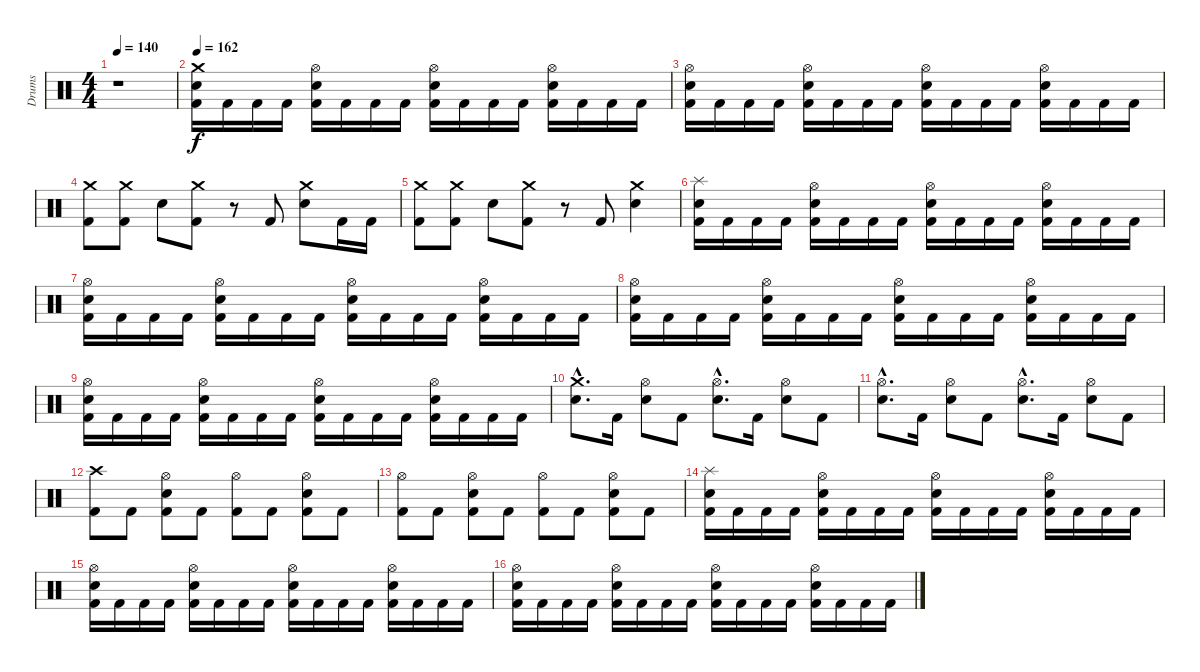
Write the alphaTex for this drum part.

\track ("Drums" "Drums") {instrument percussion}
\staff {score}
\articulation defaults
\ts (4 4)
\tempo 140
\clef neutral
\ks c
r.1{dy f} |
\section ("" "")
\tempo 162
("Kick (hit) 2" "Electric Snare (hit)" "Crash medium (hit)").16 "Kick (hit) 2".16 "Kick (hit) 2".16 "Kick (hit) 2".16 ("Kick (hit) 2" "Electric Snare (hit)" "Hi-Hat (open)").16 "Kick (hit) 2".16 "Kick (hit) 2".16 "Kick (hit) 2".16 ("Kick (hit) 2" "Electric Snare (hit)" "Hi-Hat (open)").16 "Kick (hit) 2".16 "Kick (hit) 2".16 "Kick (hit) 2".16 ("Kick (hit) 2" "Electric Snare (hit)" "Hi-Hat (open)").16 "Kick (hit) 2".16 "Kick (hit) 2".16 "Kick (hit) 2".16 |
("Kick (hit) 2" "Electric Snare (hit)" "Hi-Hat (open)").16 "Kick (hit) 2".16 "Kick (hit) 2".16 "Kick (hit) 2".16 ("Kick (hit) 2" "Electric Snare (hit)" "Hi-Hat (open)").16 "Kick (hit) 2".16 "Kick (hit) 2".16 "Kick (hit) 2".16 ("Kick (hit) 2" "Electric Snare (hit)" "Hi-Hat (open)").16 "Kick (hit) 2".16 "Kick (hit) 2".16 "Kick (hit) 2".16 ("Kick (hit) 2" "Electric Snare (hit)" "Hi-Hat (open)").16 "Kick (hit) 2".16 "Kick (hit) 2".16 "Kick (hit) 2".16 |
("Kick (hit) 2" "Crash medium (hit)").8 ("Kick (hit) 2" "Crash medium (hit)").8 "Electric Snare (hit)".8 ("Kick (hit) 2" "Crash medium (hit)").8 r.8 "Kick (hit) 2".8 ("Electric Snare (hit)" "Crash medium (hit)").8 "Kick (hit) 2".16 "Kick (hit) 2".16 |
("Kick (hit) 2" "Crash medium (hit)").8 ("Kick (hit) 2" "Crash medium (hit)").8 "Electric Snare (hit)".8 ("Kick (hit) 2" "Crash medium (hit)").8 r.8 "Kick (hit) 2".8 ("Electric Snare (hit)" "Crash medium (hit)").4 |
("Kick (hit) 2" "Electric Snare (hit)" "Splash (hit)").16 "Kick (hit) 2".16 "Kick (hit) 2".16 "Kick (hit) 2".16 ("Kick (hit) 2" "Electric Snare (hit)" "Hi-Hat (open)").16 "Kick (hit) 2".16 "Kick (hit) 2".16 "Kick (hit) 2".16 ("Kick (hit) 2" "Electric Snare (hit)" "Hi-Hat (open)").16 "Kick (hit) 2".16 "Kick (hit) 2".16 "Kick (hit) 2".16 ("Kick (hit) 2" "Electric Snare (hit)" "Hi-Hat (open)").16 "Kick (hit) 2".16 "Kick (hit) 2".16 "Kick (hit) 2".16 |
("Kick (hit) 2" "Electric Snare (hit)" "Hi-Hat (open)").16 "Kick (hit) 2".16 "Kick (hit) 2".16 "Kick (hit) 2".16 ("Kick (hit) 2" "Electric Snare (hit)" "Hi-Hat (open)").16 "Kick (hit) 2".16 "Kick (hit) 2".16 "Kick (hit) 2".16 ("Kick (hit) 2" "Electric Snare (hit)" "Hi-Hat (open)").16 "Kick (hit) 2".16 "Kick (hit) 2".16 "Kick (hit) 2".16 ("Kick (hit) 2" "Electric Snare (hit)" "Hi-Hat (open)").16 "Kick (hit) 2".16 "Kick (hit) 2".16 "Kick (hit) 2".16 |
("Kick (hit) 2" "Electric Snare (hit)" "Hi-Hat (open)").16 "Kick (hit) 2".16 "Kick (hit) 2".16 "Kick (hit) 2".16 ("Kick (hit) 2" "Electric Snare (hit)" "Hi-Hat (open)").16 "Kick (hit) 2".16 "Kick (hit) 2".16 "Kick (hit) 2".16 ("Kick (hit) 2" "Electric Snare (hit)" "Hi-Hat (open)").16 "Kick (hit) 2".16 "Kick (hit) 2".16 "Kick (hit) 2".16 ("Kick (hit) 2" "Electric Snare (hit)" "Hi-Hat (open)").16 "Kick (hit) 2".16 "Kick (hit) 2".16 "Kick (hit) 2".16 |
("Kick (hit) 2" "Electric Snare (hit)" "Hi-Hat (open)").16 "Kick (hit) 2".16 "Kick (hit) 2".16 "Kick (hit) 2".16 ("Kick (hit) 2" "Electric Snare (hit)" "Hi-Hat (open)").16 "Kick (hit) 2".16 "Kick (hit) 2".16 "Kick (hit) 2".16 ("Kick (hit) 2" "Electric Snare (hit)" "Hi-Hat (open)").16 "Kick (hit) 2".16 "Kick (hit) 2".16 "Kick (hit) 2".16 ("Kick (hit) 2" "Electric Snare (hit)" "Hi-Hat (open)").16 "Kick (hit) 2".16 "Kick (hit) 2".16 "Kick (hit) 2".16 |
("Electric Snare (hit)"{hac} "Crash medium (hit)"{hac}).8{d} "Kick (hit) 2".16 ("Electric Snare (hit)" "Hi-Hat (open)").8 "Kick (hit) 2".8 ("Electric Snare (hit)"{hac} "Hi-Hat (open)"{hac}).8{d} "Kick (hit) 2".16 ("Electric Snare (hit)" "Hi-Hat (open)").8 "Kick (hit) 2".8 |
("Electric Snare (hit)"{hac} "Hi-Hat (open)"{hac}).8{d} "Kick (hit) 2".16 ("Electric Snare (hit)" "Hi-Hat (open)").8 "Kick (hit) 2".8 ("Electric Snare (hit)"{hac} "Hi-Hat (open)"{hac}).8{d} "Kick (hit) 2".16 ("Electric Snare (hit)" "Hi-Hat (open)").8 "Kick (hit) 2".8 |
("Kick (hit) 2" "Crash high (hit)").8 "Kick (hit) 2".8 ("Kick (hit) 2" "Electric Snare (hit)" "Hi-Hat (open)").8 "Kick (hit) 2".8 ("Kick (hit) 2" "Hi-Hat (open)").8 "Kick (hit) 2".8 ("Kick (hit) 2" "Electric Snare (hit)" "Hi-Hat (open)").8 "Kick (hit) 2".8 |
("Kick (hit) 2" "Hi-Hat (open)").8 "Kick (hit) 2".8 ("Kick (hit) 2" "Electric Snare (hit)" "Hi-Hat (open)").8 "Kick (hit) 2".8 ("Kick (hit) 2" "Hi-Hat (open)").8 "Kick (hit) 2".8 ("Kick (hit) 2" "Electric Snare (hit)" "Hi-Hat (open)").8 "Kick (hit) 2".8 |
("Kick (hit) 2" "Electric Snare (hit)" "Splash (hit)").16 "Kick (hit) 2".16 "Kick (hit) 2".16 "Kick (hit) 2".16 ("Kick (hit) 2" "Electric Snare (hit)" "Hi-Hat (open)").16 "Kick (hit) 2".16 "Kick (hit) 2".16 "Kick (hit) 2".16 ("Kick (hit) 2" "Electric Snare (hit)" "Hi-Hat (open)").16 "Kick (hit) 2".16 "Kick (hit) 2".16 "Kick (hit) 2".16 ("Kick (hit) 2" "Electric Snare (hit)" "Hi-Hat (open)").16 "Kick (hit) 2".16 "Kick (hit) 2".16 "Kick (hit) 2".16 |
("Kick (hit) 2" "Electric Snare (hit)" "Hi-Hat (open)").16 "Kick (hit) 2".16 "Kick (hit) 2".16 "Kick (hit) 2".16 ("Kick (hit) 2" "Electric Snare (hit)" "Hi-Hat (open)").16 "Kick (hit) 2".16 "Kick (hit) 2".16 "Kick (hit) 2".16 ("Kick (hit) 2" "Electric Snare (hit)" "Hi-Hat (open)").16 "Kick (hit) 2".16 "Kick (hit) 2".16 "Kick (hit) 2".16 ("Kick (hit) 2" "Electric Snare (hit)" "Hi-Hat (open)").16 "Kick (hit) 2".16 "Kick (hit) 2".16 "Kick (hit) 2".16 |
("Kick (hit) 2" "Electric Snare (hit)" "Hi-Hat (open)").16 "Kick (hit) 2".16 "Kick (hit) 2".16 "Kick (hit) 2".16 ("Kick (hit) 2" "Electric Snare (hit)" "Hi-Hat (open)").16 "Kick (hit) 2".16 "Kick (hit) 2".16 "Kick (hit) 2".16 ("Kick (hit) 2" "Electric Snare (hit)" "Hi-Hat (open)").16 "Kick (hit) 2".16 "Kick (hit) 2".16 "Kick (hit) 2".16 ("Kick (hit) 2" "Electric Snare (hit)" "Hi-Hat (open)").16 "Kick (hit) 2".16 "Kick (hit) 2".16 "Kick (hit) 2".16
